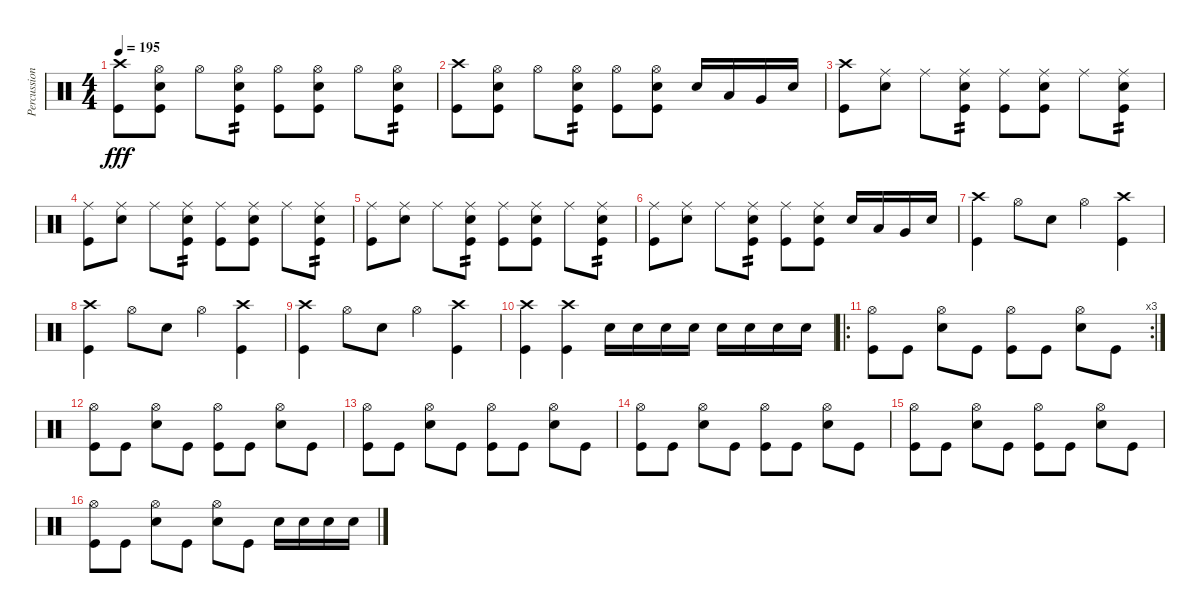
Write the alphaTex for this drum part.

\track ("Percussions" "Percussion") {instrument percussion}
\staff {score}
\articulation defaults
\ts (4 4)
\tempo 195
\clef neutral
\ks c
("Crash high (hit)" "Kick (hit)").8{dy fff} ("Hi-Hat (open)" "Electric Snare (hit)" "Kick (hit)").8 "Hi-Hat (open)".8 ("Hi-Hat (open)" "Electric Snare (hit)" "Kick (hit)").8{tp 2} ("Hi-Hat (open)" "Kick (hit)").8 ("Hi-Hat (open)" "Electric Snare (hit)" "Kick (hit)").8 "Hi-Hat (open)".8 ("Hi-Hat (open)" "Electric Snare (hit)" "Kick (hit)").8{tp 2} |
("Crash high (hit)" "Kick (hit)").8 ("Hi-Hat (open)" "Electric Snare (hit)" "Kick (hit)").8 "Hi-Hat (open)".8 ("Hi-Hat (open)" "Electric Snare (hit)" "Kick (hit)").8{tp 2} ("Hi-Hat (open)" "Kick (hit)").8 ("Hi-Hat (open)" "Electric Snare (hit)" "Kick (hit)").8 "Electric Snare (hit)".16 "Low Tom (hit)".16 "Very Low Tom (hit)".16 "Electric Snare (hit)".16 |
("Crash high (hit)" "Kick (hit)").8 ("Ride (middle)" "Electric Snare (hit)").8 "Ride (middle)".8 ("Ride (middle)" "Electric Snare (hit)" "Kick (hit)").8{tp 2} ("Ride (middle)" "Kick (hit)").8 ("Ride (middle)" "Electric Snare (hit)" "Kick (hit)").8 "Ride (middle)".8 ("Ride (middle)" "Electric Snare (hit)" "Kick (hit)").8{tp 2} |
("Ride (middle)" "Kick (hit)").8 ("Ride (middle)" "Electric Snare (hit)").8 "Ride (middle)".8 ("Ride (middle)" "Electric Snare (hit)" "Kick (hit)").8{tp 2} ("Ride (middle)" "Kick (hit)").8 ("Ride (middle)" "Electric Snare (hit)" "Kick (hit)").8 "Ride (middle)".8 ("Ride (middle)" "Electric Snare (hit)" "Kick (hit)").8{tp 2} |
("Ride (middle)" "Kick (hit)").8 ("Ride (middle)" "Electric Snare (hit)").8 "Ride (middle)".8 ("Ride (middle)" "Electric Snare (hit)" "Kick (hit)").8{tp 2} ("Ride (middle)" "Kick (hit)").8 ("Ride (middle)" "Electric Snare (hit)" "Kick (hit)").8 "Ride (middle)".8 ("Ride (middle)" "Electric Snare (hit)" "Kick (hit)").8{tp 2} |
("Ride (middle)" "Kick (hit)").8 ("Ride (middle)" "Electric Snare (hit)").8 "Ride (middle)".8 ("Ride (middle)" "Electric Snare (hit)" "Kick (hit)").8{tp 2} ("Ride (middle)" "Kick (hit)").8 ("Ride (middle)" "Electric Snare (hit)" "Kick (hit)").8 "Electric Snare (hit)".16 "Low Tom (hit)".16 "Very Low Tom (hit)".16 "Electric Snare (hit)".16 |
("Crash high (hit)" "Kick (hit)").4 "Hi-Hat (open)".8 "Electric Snare (hit)".8 "Hi-Hat (open)".4 ("Crash high (hit)" "Kick (hit)").4 |
("Crash high (hit)" "Kick (hit)").4 "Hi-Hat (open)".8 "Electric Snare (hit)".8 "Hi-Hat (open)".4 ("Crash high (hit)" "Kick (hit)").4 |
("Crash high (hit)" "Kick (hit)").4 "Hi-Hat (open)".8 "Electric Snare (hit)".8 "Hi-Hat (open)".4 ("Crash high (hit)" "Kick (hit)").4 |
("Crash high (hit)" "Kick (hit)").4 ("Crash high (hit)" "Kick (hit)").4 "Electric Snare (hit)".16 "Electric Snare (hit)".16 "Electric Snare (hit)".16 "Electric Snare (hit)".16 "Electric Snare (hit)".16 "Electric Snare (hit)".16 "Electric Snare (hit)".16 "Electric Snare (hit)".16 |
\ro
\rc 3
("Hi-Hat (open)" "Kick (hit)").8 "Kick (hit)".8 ("Hi-Hat (open)" "Electric Snare (hit)").8 "Kick (hit)".8 ("Hi-Hat (open)" "Kick (hit)").8 "Kick (hit)".8 ("Hi-Hat (open)" "Electric Snare (hit)").8 "Kick (hit)".8 |
("Hi-Hat (open)" "Kick (hit)").8 "Kick (hit)".8 ("Hi-Hat (open)" "Electric Snare (hit)").8 "Kick (hit)".8 ("Hi-Hat (open)" "Kick (hit)").8 "Kick (hit)".8 ("Hi-Hat (open)" "Electric Snare (hit)").8 "Kick (hit)".8 |
("Hi-Hat (open)" "Kick (hit)").8 "Kick (hit)".8 ("Hi-Hat (open)" "Electric Snare (hit)").8 "Kick (hit)".8 ("Hi-Hat (open)" "Kick (hit)").8 "Kick (hit)".8 ("Hi-Hat (open)" "Electric Snare (hit)").8 "Kick (hit)".8 |
("Hi-Hat (open)" "Kick (hit)").8 "Kick (hit)".8 ("Hi-Hat (open)" "Electric Snare (hit)").8 "Kick (hit)".8 ("Hi-Hat (open)" "Kick (hit)").8 "Kick (hit)".8 ("Hi-Hat (open)" "Electric Snare (hit)").8 "Kick (hit)".8 |
("Hi-Hat (open)" "Kick (hit)").8 "Kick (hit)".8 ("Hi-Hat (open)" "Electric Snare (hit)").8 "Kick (hit)".8 ("Hi-Hat (open)" "Kick (hit)").8 "Kick (hit)".8 ("Hi-Hat (open)" "Electric Snare (hit)").8 "Kick (hit)".8 |
("Hi-Hat (open)" "Kick (hit)").8 "Kick (hit)".8 ("Hi-Hat (open)" "Electric Snare (hit)").8 "Kick (hit)".8 ("Hi-Hat (open)" "Electric Snare (hit)").8 "Kick (hit)".8 "Electric Snare (hit)".16 "Electric Snare (hit)".16 "Electric Snare (hit)".16 "Electric Snare (hit)".16
